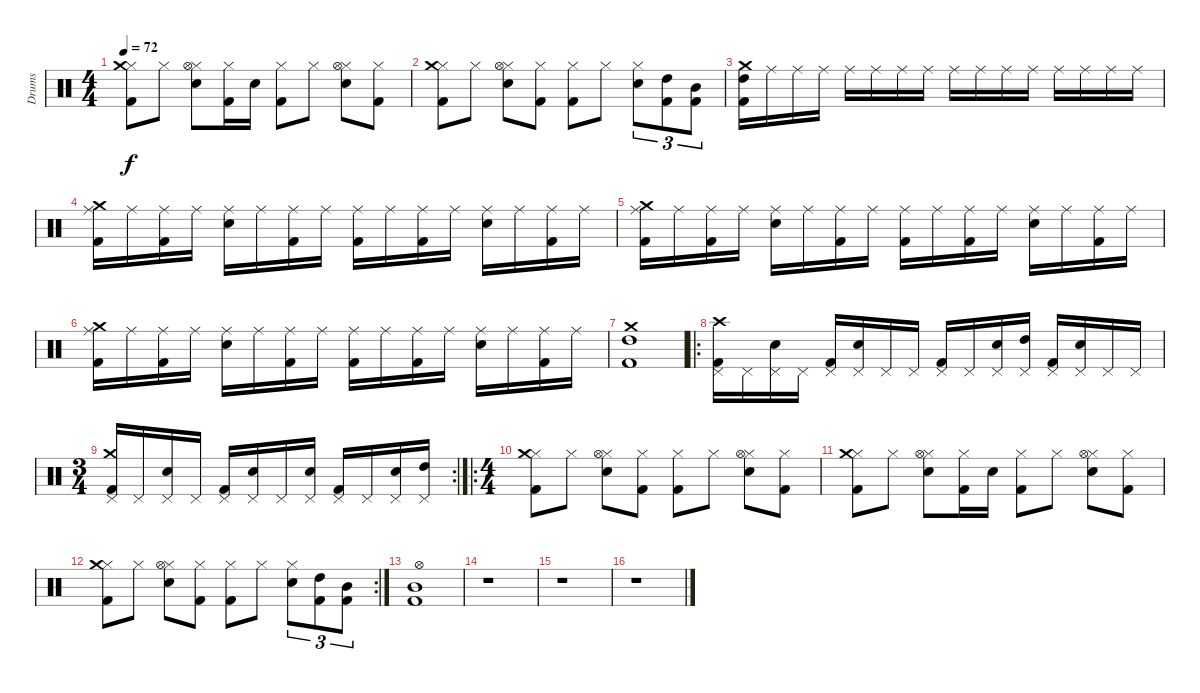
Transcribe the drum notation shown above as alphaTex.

\track ("Drums" "Drums") {instrument percussion}
\staff {score}
\articulation defaults
\ts (4 4)
\tempo 72
\clef neutral
\ks c
("Kick (hit) 2" "Hi-Hat (closed)" "Crash medium (hit)").8{dy f} "Hi-Hat (closed)".8 ("Electric Snare (hit)" "Hi-Hat (closed)" "Hi-Hat (open)").8 ("Kick (hit) 2" "Hi-Hat (closed)").16 "Electric Snare (hit)".16 ("Kick (hit) 2" "Hi-Hat (closed)").8 "Hi-Hat (closed)".8 ("Electric Snare (hit)" "Hi-Hat (closed)" "Hi-Hat (open)").8 ("Kick (hit) 2" "Hi-Hat (closed)").8 |
("Kick (hit) 2" "Hi-Hat (closed)" "Crash medium (hit)").8 "Hi-Hat (closed)".8 ("Electric Snare (hit)" "Hi-Hat (closed)" "Hi-Hat (open)").8 ("Kick (hit) 2" "Hi-Hat (closed)").8 ("Kick (hit) 2" "Hi-Hat (closed)").8 "Hi-Hat (closed)".8 ("Electric Snare (hit)" "Hi-Hat (closed)").8{tu (3 2)} ("High Tom (hit)" "Kick (hit) 2").8{tu (3 2)} ("Mid Tom (hit)" "Kick (hit) 2").8{tu (3 2)} |
("High Tom (hit)" "Kick (hit) 2" "Crash medium (hit)").16 "Ride (middle)".16 "Ride (middle)".16 "Ride (middle)".16 "Ride (middle)".16 "Ride (middle)".16 "Ride (middle)".16 "Ride (middle)".16 "Ride (middle)".16 "Ride (middle)".16 "Ride (middle)".16 "Ride (middle)".16 "Ride (middle)".16 "Ride (middle)".16 "Ride (middle)".16 "Ride (middle)".16 |
("Ride (middle)" "Kick (hit) 2" "Crash medium (hit)").16 "Ride (middle)".16 ("Ride (middle)" "Kick (hit) 2").16 "Ride (middle)".16 ("Ride (middle)" "Electric Snare (hit)").16 "Ride (middle)".16 ("Ride (middle)" "Kick (hit) 2").16 "Ride (middle)".16 ("Ride (middle)" "Kick (hit) 2").16 "Ride (middle)".16 ("Ride (middle)" "Kick (hit) 2").16 "Ride (middle)".16 ("Ride (middle)" "Electric Snare (hit)").16 "Ride (middle)".16 ("Ride (middle)" "Kick (hit) 2").16 "Ride (middle)".16 |
("Ride (middle)" "Kick (hit) 2" "Crash medium (hit)").16 "Ride (middle)".16 ("Ride (middle)" "Kick (hit) 2").16 "Ride (middle)".16 ("Ride (middle)" "Electric Snare (hit)").16 "Ride (middle)".16 ("Ride (middle)" "Kick (hit) 2").16 "Ride (middle)".16 ("Ride (middle)" "Kick (hit) 2").16 "Ride (middle)".16 ("Ride (middle)" "Kick (hit) 2").16 "Ride (middle)".16 ("Ride (middle)" "Electric Snare (hit)").16 "Ride (middle)".16 ("Ride (middle)" "Kick (hit) 2").16 "Ride (middle)".16 |
("Ride (middle)" "Kick (hit) 2" "Crash medium (hit)").16 "Ride (middle)".16 ("Ride (middle)" "Kick (hit) 2").16 "Ride (middle)".16 ("Ride (middle)" "Electric Snare (hit)").16 "Ride (middle)".16 ("Ride (middle)" "Kick (hit) 2").16 "Ride (middle)".16 ("Ride (middle)" "Kick (hit) 2").16 "Ride (middle)".16 ("Ride (middle)" "Kick (hit) 2").16 "Ride (middle)".16 ("Ride (middle)" "Electric Snare (hit)").16 "Ride (middle)".16 ("Ride (middle)" "Kick (hit) 2").16 "Ride (middle)".16 |
("High Tom (hit)" "Kick (hit) 2" "Crash medium (hit)").1 |
\ro
("Pedal Hi-Hat (hit)" "Kick (hit) 2" "Crash high (hit)").16 "Pedal Hi-Hat (hit)".16 ("Pedal Hi-Hat (hit)" "Electric Snare (hit)").16 "Pedal Hi-Hat (hit)".16 ("Pedal Hi-Hat (hit)" "Kick (hit) 2").16 ("Pedal Hi-Hat (hit)" "Electric Snare (hit)").16 "Pedal Hi-Hat (hit)".16 "Pedal Hi-Hat (hit)".16 ("Pedal Hi-Hat (hit)" "Kick (hit) 2").16 "Pedal Hi-Hat (hit)".16 ("Pedal Hi-Hat (hit)" "Electric Snare (hit)").16 ("Pedal Hi-Hat (hit)" "High Tom (hit)").16 ("Pedal Hi-Hat (hit)" "Kick (hit) 2").16 ("Pedal Hi-Hat (hit)" "Electric Snare (hit)").16 "Pedal Hi-Hat (hit)".16 "Pedal Hi-Hat (hit)".16 |
\rc 2
\ts (3 4)
("Pedal Hi-Hat (hit)" "Kick (hit) 2" "Crash medium (hit)").16 "Pedal Hi-Hat (hit)".16 ("Pedal Hi-Hat (hit)" "Electric Snare (hit)").16 "Pedal Hi-Hat (hit)".16 ("Pedal Hi-Hat (hit)" "Kick (hit) 2").16 ("Pedal Hi-Hat (hit)" "Electric Snare (hit)").16 "Pedal Hi-Hat (hit)".16 ("Pedal Hi-Hat (hit)" "Electric Snare (hit)").16 ("Pedal Hi-Hat (hit)" "Kick (hit) 2").16 "Pedal Hi-Hat (hit)".16 ("Pedal Hi-Hat (hit)" "Electric Snare (hit)").16 ("Pedal Hi-Hat (hit)" "High Tom (hit)").16 |
\ro
\ts (4 4)
("Kick (hit) 2" "Hi-Hat (closed)" "Crash medium (hit)").8 "Hi-Hat (closed)".8 ("Electric Snare (hit)" "Hi-Hat (closed)" "Hi-Hat (open)").8 ("Kick (hit) 2" "Hi-Hat (closed)").8 ("Kick (hit) 2" "Hi-Hat (closed)").8 "Hi-Hat (closed)".8 ("Electric Snare (hit)" "Hi-Hat (closed)" "Hi-Hat (open)").8 ("Kick (hit) 2" "Hi-Hat (closed)").8 |
("Kick (hit) 2" "Hi-Hat (closed)" "Crash medium (hit)").8 "Hi-Hat (closed)".8 ("Electric Snare (hit)" "Hi-Hat (closed)" "Hi-Hat (open)").8 ("Kick (hit) 2" "Hi-Hat (closed)").16 "Electric Snare (hit)".16 ("Kick (hit) 2" "Hi-Hat (closed)").8 "Hi-Hat (closed)".8 ("Electric Snare (hit)" "Hi-Hat (closed)" "Hi-Hat (open)").8 ("Kick (hit) 2" "Hi-Hat (closed)").8 |
\rc 2
("Kick (hit) 2" "Hi-Hat (closed)" "Crash medium (hit)").8 "Hi-Hat (closed)".8 ("Electric Snare (hit)" "Hi-Hat (closed)" "Hi-Hat (open)").8 ("Kick (hit) 2" "Hi-Hat (closed)").8 ("Kick (hit) 2" "Hi-Hat (closed)").8 "Hi-Hat (closed)".8 ("Electric Snare (hit)" "Hi-Hat (closed)").8{tu (3 2)} ("High Tom (hit)" "Kick (hit) 2").8{tu (3 2)} ("Mid Tom (hit)" "Kick (hit) 2").8{tu (3 2)} |
("Kick (hit) 2" "Mid Tom (hit)" "Hi-Hat (open)").1 |
r.1 |
r.1 |
r.1
